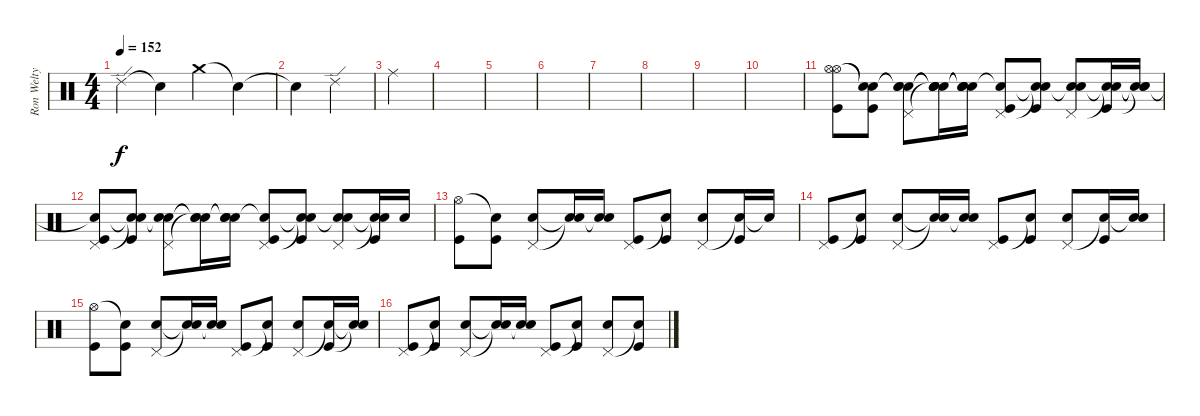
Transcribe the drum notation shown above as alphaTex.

\track ("Ron Welty" "Ron Welty") {instrument percussion}
\staff {score}
\articulation defaults
\ts (4 4)
\tempo 152
\clef neutral
\ks c "Ride (edge) 2".4{dy f volume 10} "Snare (hit)"{t}.4 "Crash medium (hit)".4{volume 8} "Snare (hit)"{t}.4
|
"Snare (hit)"{t}.4 "Ride (edge) 2".4{volume 6} |
"Ride (middle)".4{volume 5} |
|
|
|
|
|
|
|
("Hi-Hat (open)" "Hi-Hat (open)" "Kick (hit)").8{volume 16} ("Snare (hit)"{t} "Snare (hit)"{t} "Kick (hit)").8 ("Snare (hit)"{t} "Snare (hit)"{t} "Pedal Hi-Hat (hit)" "Electric Snare (hit)").8 ("Snare (hit)"{t} "Snare (hit)"{t} "Snare (hit)"{t} "Snare (hit)"{t}).16 ("Snare (hit)"{t} "Snare (hit)"{t} "Snare (hit)"{t} "Electric Snare (hit)").16 ("Snare (hit)"{t} "Pedal Hi-Hat (hit)" "Kick (hit)").8 ("Snare (hit)"{t} "Snare (hit)"{t} "Kick (hit)").8 ("Snare (hit)"{t} "Pedal Hi-Hat (hit)" "Electric Snare (hit)").8 ("Snare (hit)"{t} "Snare (hit)"{t} "Kick (hit)").16 ("Snare (hit)"{t} "Snare (hit)"{t} "Electric Snare (hit)"{t}).16 |
("Snare (hit)"{t} "Pedal Hi-Hat (hit)" "Kick (hit)").8 ("Snare (hit)"{t} "Snare (hit)"{t} "Kick (hit)").8 ("Snare (hit)"{t} "Pedal Hi-Hat (hit)" "Electric Snare (hit)").8 ("Snare (hit)"{t} "Snare (hit)"{t} "Snare (hit)"{t}).16 ("Snare (hit)"{t} "Snare (hit)"{t} "Electric Snare (hit)").16 ("Snare (hit)"{t} "Pedal Hi-Hat (hit)" "Kick (hit)").8 ("Snare (hit)"{t} "Snare (hit)"{t} "Kick (hit)").8 ("Snare (hit)"{t} "Pedal Hi-Hat (hit)" "Electric Snare (hit)").8 ("Snare (hit)"{t} "Snare (hit)"{t} "Kick (hit)").16 "Electric Snare (hit)".16 |
("Hi-Hat (open)" "Kick (hit)").8 ("Snare (hit)"{t} "Kick (hit)").8 ("Pedal Hi-Hat (hit)" "Electric Snare (hit)").8 ("Snare (hit)"{t} "Snare (hit)"{t}).16 ("Snare (hit)"{t} "Electric Snare (hit)").16 ("Pedal Hi-Hat (hit)" "Kick (hit)").8 ("Snare (hit)"{t} "Kick (hit)").8 ("Pedal Hi-Hat (hit)" "Electric Snare (hit)").8 ("Snare (hit)"{t} "Kick (hit)").16 "Electric Snare (hit)"{t}.16 |
("Pedal Hi-Hat (hit)" "Kick (hit)").8 ("Snare (hit)"{t} "Kick (hit)").8 ("Pedal Hi-Hat (hit)" "Electric Snare (hit)").8 ("Snare (hit)"{t} "Snare (hit)"{t}).16 ("Snare (hit)"{t} "Electric Snare (hit)").16 ("Pedal Hi-Hat (hit)" "Kick (hit)").8 ("Snare (hit)"{t} "Kick (hit)").8 ("Pedal Hi-Hat (hit)" "Electric Snare (hit)").8 ("Snare (hit)"{t} "Kick (hit)").16 ("Snare (hit)"{t} "Electric Snare (hit)").16 |
("Hi-Hat (open)" "Kick (hit)").8 ("Snare (hit)"{t} "Kick (hit)").8 ("Pedal Hi-Hat (hit)" "Electric Snare (hit)").8 ("Snare (hit)"{t} "Snare (hit)"{t}).16 ("Snare (hit)"{t} "Electric Snare (hit)").16 ("Pedal Hi-Hat (hit)" "Kick (hit)").8 ("Snare (hit)"{t} "Kick (hit)").8 ("Pedal Hi-Hat (hit)" "Electric Snare (hit)").8 ("Snare (hit)"{t} "Kick (hit)").16 ("Snare (hit)"{t} "Electric Snare (hit)"{t}).16 |
("Pedal Hi-Hat (hit)" "Kick (hit)").8 ("Snare (hit)"{t} "Kick (hit)").8 ("Pedal Hi-Hat (hit)" "Electric Snare (hit)").8 ("Snare (hit)"{t} "Snare (hit)"{t}).16 ("Snare (hit)"{t} "Electric Snare (hit)").16 ("Pedal Hi-Hat (hit)" "Kick (hit)").8 ("Snare (hit)"{t} "Kick (hit)").8 ("Pedal Hi-Hat (hit)" "Electric Snare (hit)").8 ("Snare (hit)"{t} "Kick (hit)").8
